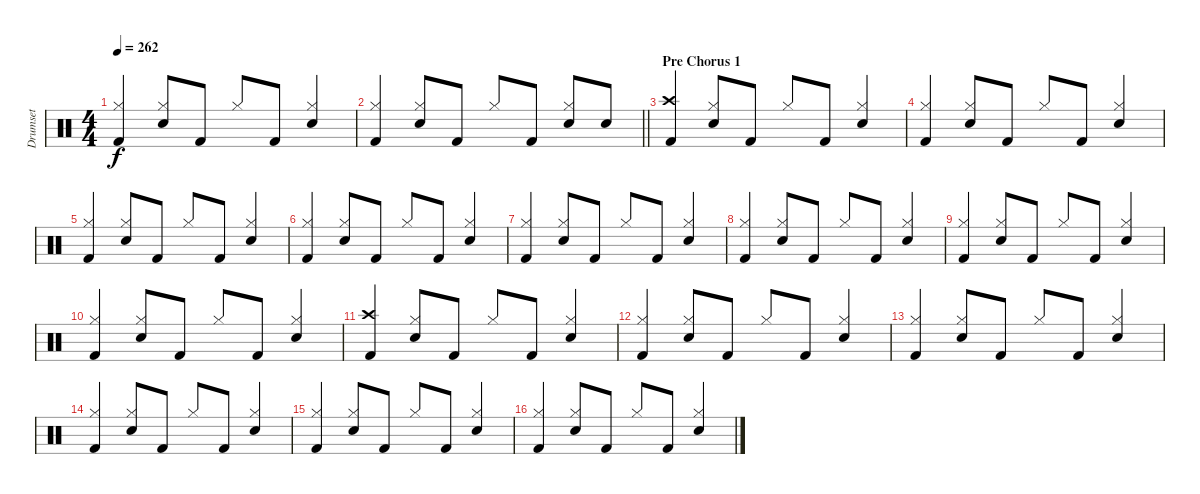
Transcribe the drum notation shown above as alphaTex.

\track ("Drumset" "Drumset") {instrument percussion}
\staff {score}
\articulation defaults
\ts (4 4)
\tempo 262
\clef neutral
\ks c
("Hi-Hat (closed)" "Kick (hit) 2").4{dy f beam Up} ("Hi-Hat (closed)" "Snare (hit) 2").8{beam Up} "Kick (hit) 2".8{beam Up} "Hi-Hat (closed)".8{beam Up} "Kick (hit) 2".8{beam Up} ("Snare (hit) 2" "Hi-Hat (closed)").4{beam Up} |
\barLineRight lightlight
("Hi-Hat (closed)" "Kick (hit) 2").4{beam Up} ("Hi-Hat (closed)" "Snare (hit) 2").8{beam Up} "Kick (hit) 2".8{beam Up} "Hi-Hat (closed)".8{beam Up} "Kick (hit) 2".8{beam Up} ("Snare (hit) 2" "Hi-Hat (closed)").8{beam Up} "Snare (hit) 2".8{beam Up} |
\section ("" "Pre Chorus 1")
("Crash high (hit)" "Kick (hit) 2").4{beam Up} ("Hi-Hat (closed)" "Snare (hit) 2").8{beam Up} "Kick (hit) 2".8{beam Up} "Hi-Hat (closed)".8{beam Up} "Kick (hit) 2".8{beam Up} ("Snare (hit) 2" "Hi-Hat (closed)").4{beam Up} |
("Hi-Hat (closed)" "Kick (hit) 2").4{beam Up} ("Hi-Hat (closed)" "Snare (hit) 2").8{beam Up} "Kick (hit) 2".8{beam Up} "Hi-Hat (closed)".8{beam Up} "Kick (hit) 2".8{beam Up} ("Snare (hit) 2" "Hi-Hat (closed)").4{beam Up} |
("Hi-Hat (closed)" "Kick (hit) 2").4{beam Up} ("Hi-Hat (closed)" "Snare (hit) 2").8{beam Up} "Kick (hit) 2".8{beam Up} "Hi-Hat (closed)".8{beam Up} "Kick (hit) 2".8{beam Up} ("Snare (hit) 2" "Hi-Hat (closed)").4{beam Up} |
("Hi-Hat (closed)" "Kick (hit) 2").4{beam Up} ("Hi-Hat (closed)" "Snare (hit) 2").8{beam Up} "Kick (hit) 2".8{beam Up} "Hi-Hat (closed)".8{beam Up} "Kick (hit) 2".8{beam Up} ("Snare (hit) 2" "Hi-Hat (closed)").4{beam Up} |
("Hi-Hat (closed)" "Kick (hit) 2").4{beam Up} ("Hi-Hat (closed)" "Snare (hit) 2").8{beam Up} "Kick (hit) 2".8{beam Up} "Hi-Hat (closed)".8{beam Up} "Kick (hit) 2".8{beam Up} ("Snare (hit) 2" "Hi-Hat (closed)").4{beam Up} |
("Hi-Hat (closed)" "Kick (hit) 2").4{beam Up} ("Hi-Hat (closed)" "Snare (hit) 2").8{beam Up} "Kick (hit) 2".8{beam Up} "Hi-Hat (closed)".8{beam Up} "Kick (hit) 2".8{beam Up} ("Snare (hit) 2" "Hi-Hat (closed)").4{beam Up} |
("Hi-Hat (closed)" "Kick (hit) 2").4{beam Up} ("Hi-Hat (closed)" "Snare (hit) 2").8{beam Up} "Kick (hit) 2".8{beam Up} "Hi-Hat (closed)".8{beam Up} "Kick (hit) 2".8{beam Up} ("Snare (hit) 2" "Hi-Hat (closed)").4{beam Up} |
("Hi-Hat (closed)" "Kick (hit) 2").4{beam Up} ("Hi-Hat (closed)" "Snare (hit) 2").8{beam Up} "Kick (hit) 2".8{beam Up} "Hi-Hat (closed)".8{beam Up} "Kick (hit) 2".8{beam Up} ("Snare (hit) 2" "Hi-Hat (closed)").4{beam Up} |
("Crash high (hit)" "Kick (hit) 2").4{beam Up} ("Hi-Hat (closed)" "Snare (hit) 2").8{beam Up} "Kick (hit) 2".8{beam Up} "Hi-Hat (closed)".8{beam Up} "Kick (hit) 2".8{beam Up} ("Snare (hit) 2" "Hi-Hat (closed)").4{beam Up} |
("Hi-Hat (closed)" "Kick (hit) 2").4{beam Up} ("Hi-Hat (closed)" "Snare (hit) 2").8{beam Up} "Kick (hit) 2".8{beam Up} "Hi-Hat (closed)".8{beam Up} "Kick (hit) 2".8{beam Up} ("Snare (hit) 2" "Hi-Hat (closed)").4{beam Up} |
("Hi-Hat (closed)" "Kick (hit) 2").4{beam Up} ("Hi-Hat (closed)" "Snare (hit) 2").8{beam Up} "Kick (hit) 2".8{beam Up} "Hi-Hat (closed)".8{beam Up} "Kick (hit) 2".8{beam Up} ("Snare (hit) 2" "Hi-Hat (closed)").4{beam Up} |
("Hi-Hat (closed)" "Kick (hit) 2").4{beam Up} ("Hi-Hat (closed)" "Snare (hit) 2").8{beam Up} "Kick (hit) 2".8{beam Up} "Hi-Hat (closed)".8{beam Up} "Kick (hit) 2".8{beam Up} ("Snare (hit) 2" "Hi-Hat (closed)").4{beam Up} |
("Hi-Hat (closed)" "Kick (hit) 2").4{beam Up} ("Hi-Hat (closed)" "Snare (hit) 2").8{beam Up} "Kick (hit) 2".8{beam Up} "Hi-Hat (closed)".8{beam Up} "Kick (hit) 2".8{beam Up} ("Snare (hit) 2" "Hi-Hat (closed)").4{beam Up} |
("Hi-Hat (closed)" "Kick (hit) 2").4{beam Up} ("Hi-Hat (closed)" "Snare (hit) 2").8{beam Up} "Kick (hit) 2".8{beam Up} "Hi-Hat (closed)".8{beam Up} "Kick (hit) 2".8{beam Up} ("Snare (hit) 2" "Hi-Hat (closed)").4{beam Up}
